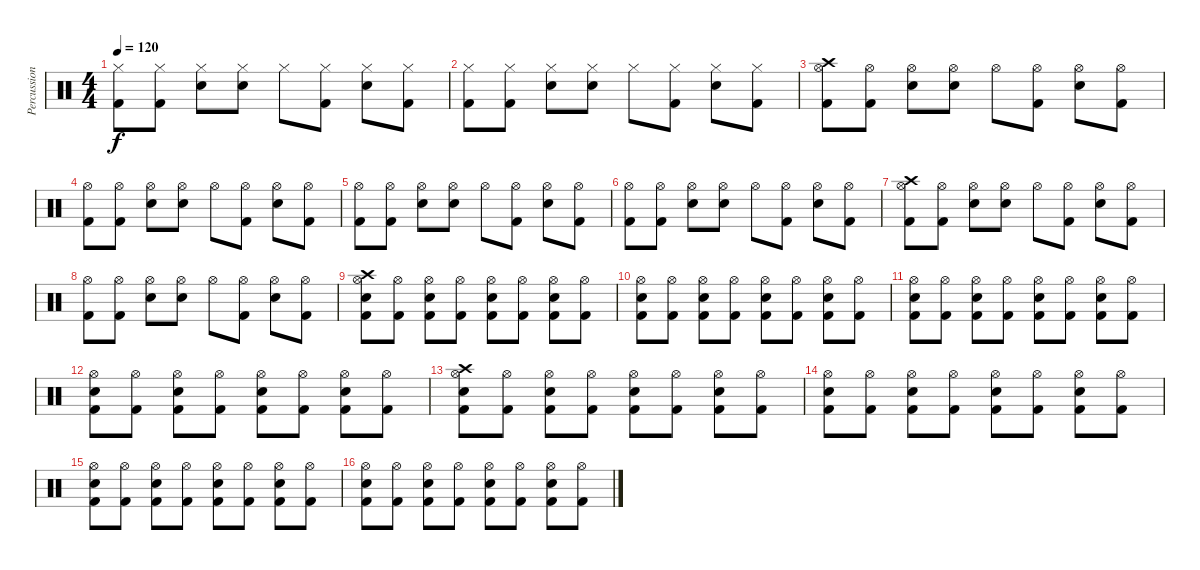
\track ("Percussion" "Percussion") {instrument percussion}
\staff {score}
\articulation defaults
\ts (4 4)
\tempo 120
\clef neutral
\ks c
("Kick (hit) 2" "Hi-Hat (closed)").8{dy f} ("Kick (hit) 2" "Hi-Hat (closed)").8 ("Electric Snare (hit)" "Hi-Hat (closed)").8 ("Electric Snare (hit)" "Hi-Hat (closed)").8 "Hi-Hat (closed)".8 ("Kick (hit) 2" "Hi-Hat (closed)").8 ("Electric Snare (hit)" "Hi-Hat (closed)").8 ("Kick (hit) 2" "Hi-Hat (closed)").8 |
("Kick (hit) 2" "Hi-Hat (closed)").8 ("Kick (hit) 2" "Hi-Hat (closed)").8 ("Electric Snare (hit)" "Hi-Hat (closed)").8 ("Electric Snare (hit)" "Hi-Hat (closed)").8 "Hi-Hat (closed)".8 ("Kick (hit) 2" "Hi-Hat (closed)").8 ("Electric Snare (hit)" "Hi-Hat (closed)").8 ("Kick (hit) 2" "Hi-Hat (closed)").8 |
("Kick (hit) 2" "Hi-Hat (open)" "Crash high (hit)").8 ("Kick (hit) 2" "Hi-Hat (open)").8 ("Electric Snare (hit)" "Hi-Hat (open)").8 ("Electric Snare (hit)" "Hi-Hat (open)").8 "Hi-Hat (open)".8 ("Kick (hit) 2" "Hi-Hat (open)").8 ("Electric Snare (hit)" "Hi-Hat (open)").8 ("Kick (hit) 2" "Hi-Hat (open)").8 |
("Kick (hit) 2" "Hi-Hat (open)").8 ("Kick (hit) 2" "Hi-Hat (open)").8 ("Electric Snare (hit)" "Hi-Hat (open)").8 ("Electric Snare (hit)" "Hi-Hat (open)").8 "Hi-Hat (open)".8 ("Kick (hit) 2" "Hi-Hat (open)").8 ("Electric Snare (hit)" "Hi-Hat (open)").8 ("Kick (hit) 2" "Hi-Hat (open)").8 |
("Kick (hit) 2" "Hi-Hat (open)").8 ("Kick (hit) 2" "Hi-Hat (open)").8 ("Electric Snare (hit)" "Hi-Hat (open)").8 ("Electric Snare (hit)" "Hi-Hat (open)").8 "Hi-Hat (open)".8 ("Kick (hit) 2" "Hi-Hat (open)").8 ("Electric Snare (hit)" "Hi-Hat (open)").8 ("Kick (hit) 2" "Hi-Hat (open)").8 |
("Kick (hit) 2" "Hi-Hat (open)").8 ("Kick (hit) 2" "Hi-Hat (open)").8 ("Electric Snare (hit)" "Hi-Hat (open)").8 ("Electric Snare (hit)" "Hi-Hat (open)").8 "Hi-Hat (open)".8 ("Kick (hit) 2" "Hi-Hat (open)").8 ("Electric Snare (hit)" "Hi-Hat (open)").8 ("Kick (hit) 2" "Hi-Hat (open)").8 |
("Kick (hit) 2" "Hi-Hat (open)" "Crash high (hit)").8 ("Kick (hit) 2" "Hi-Hat (open)").8 ("Electric Snare (hit)" "Hi-Hat (open)").8 ("Electric Snare (hit)" "Hi-Hat (open)").8 "Hi-Hat (open)".8 ("Kick (hit) 2" "Hi-Hat (open)").8 ("Electric Snare (hit)" "Hi-Hat (open)").8 ("Kick (hit) 2" "Hi-Hat (open)").8 |
("Kick (hit) 2" "Hi-Hat (open)").8 ("Kick (hit) 2" "Hi-Hat (open)").8 ("Electric Snare (hit)" "Hi-Hat (open)").8 ("Electric Snare (hit)" "Hi-Hat (open)").8 "Hi-Hat (open)".8 ("Kick (hit) 2" "Hi-Hat (open)").8 ("Electric Snare (hit)" "Hi-Hat (open)").8 ("Kick (hit) 2" "Hi-Hat (open)").8 |
("Kick (hit) 2" "Electric Snare (hit)" "Hi-Hat (open)" "Crash high (hit)").8 ("Kick (hit) 2" "Hi-Hat (open)").8 ("Kick (hit) 2" "Electric Snare (hit)" "Hi-Hat (open)").8 ("Kick (hit) 2" "Hi-Hat (open)").8 ("Kick (hit) 2" "Electric Snare (hit)" "Hi-Hat (open)").8 ("Kick (hit) 2" "Hi-Hat (open)").8 ("Kick (hit) 2" "Electric Snare (hit)" "Hi-Hat (open)").8 ("Kick (hit) 2" "Hi-Hat (open)").8 |
("Kick (hit) 2" "Electric Snare (hit)" "Hi-Hat (open)").8 ("Kick (hit) 2" "Hi-Hat (open)").8 ("Kick (hit) 2" "Electric Snare (hit)" "Hi-Hat (open)").8 ("Kick (hit) 2" "Hi-Hat (open)").8 ("Kick (hit) 2" "Electric Snare (hit)" "Hi-Hat (open)").8 ("Kick (hit) 2" "Hi-Hat (open)").8 ("Kick (hit) 2" "Electric Snare (hit)" "Hi-Hat (open)").8 ("Kick (hit) 2" "Hi-Hat (open)").8 |
("Kick (hit) 2" "Electric Snare (hit)" "Hi-Hat (open)").8 ("Kick (hit) 2" "Hi-Hat (open)").8 ("Kick (hit) 2" "Electric Snare (hit)" "Hi-Hat (open)").8 ("Kick (hit) 2" "Hi-Hat (open)").8 ("Kick (hit) 2" "Electric Snare (hit)" "Hi-Hat (open)").8 ("Kick (hit) 2" "Hi-Hat (open)").8 ("Kick (hit) 2" "Electric Snare (hit)" "Hi-Hat (open)").8 ("Kick (hit) 2" "Hi-Hat (open)").8 |
("Kick (hit) 2" "Electric Snare (hit)" "Hi-Hat (open)").8 ("Kick (hit) 2" "Hi-Hat (open)").8 ("Kick (hit) 2" "Electric Snare (hit)" "Hi-Hat (open)").8 ("Kick (hit) 2" "Hi-Hat (open)").8 ("Kick (hit) 2" "Electric Snare (hit)" "Hi-Hat (open)").8 ("Kick (hit) 2" "Hi-Hat (open)").8 ("Kick (hit) 2" "Electric Snare (hit)" "Hi-Hat (open)").8 ("Kick (hit) 2" "Hi-Hat (open)").8 |
("Kick (hit) 2" "Electric Snare (hit)" "Hi-Hat (open)" "Crash high (hit)").8 ("Kick (hit) 2" "Hi-Hat (open)").8 ("Kick (hit) 2" "Electric Snare (hit)" "Hi-Hat (open)").8 ("Kick (hit) 2" "Hi-Hat (open)").8 ("Kick (hit) 2" "Electric Snare (hit)" "Hi-Hat (open)").8 ("Kick (hit) 2" "Hi-Hat (open)").8 ("Kick (hit) 2" "Electric Snare (hit)" "Hi-Hat (open)").8 ("Kick (hit) 2" "Hi-Hat (open)").8 |
("Kick (hit) 2" "Electric Snare (hit)" "Hi-Hat (open)").8 ("Kick (hit) 2" "Hi-Hat (open)").8 ("Kick (hit) 2" "Electric Snare (hit)" "Hi-Hat (open)").8 ("Kick (hit) 2" "Hi-Hat (open)").8 ("Kick (hit) 2" "Electric Snare (hit)" "Hi-Hat (open)").8 ("Kick (hit) 2" "Hi-Hat (open)").8 ("Kick (hit) 2" "Electric Snare (hit)" "Hi-Hat (open)").8 ("Kick (hit) 2" "Hi-Hat (open)").8 |
("Kick (hit) 2" "Electric Snare (hit)" "Hi-Hat (open)").8 ("Kick (hit) 2" "Hi-Hat (open)").8 ("Kick (hit) 2" "Electric Snare (hit)" "Hi-Hat (open)").8 ("Kick (hit) 2" "Hi-Hat (open)").8 ("Kick (hit) 2" "Electric Snare (hit)" "Hi-Hat (open)").8 ("Kick (hit) 2" "Hi-Hat (open)").8 ("Kick (hit) 2" "Electric Snare (hit)" "Hi-Hat (open)").8 ("Kick (hit) 2" "Hi-Hat (open)").8 |
("Kick (hit) 2" "Electric Snare (hit)" "Hi-Hat (open)").8 ("Kick (hit) 2" "Hi-Hat (open)").8 ("Kick (hit) 2" "Electric Snare (hit)" "Hi-Hat (open)").8 ("Kick (hit) 2" "Hi-Hat (open)").8 ("Kick (hit) 2" "Electric Snare (hit)" "Hi-Hat (open)").8 ("Kick (hit) 2" "Hi-Hat (open)").8 ("Kick (hit) 2" "Electric Snare (hit)" "Hi-Hat (open)").8 ("Kick (hit) 2" "Hi-Hat (open)").8
